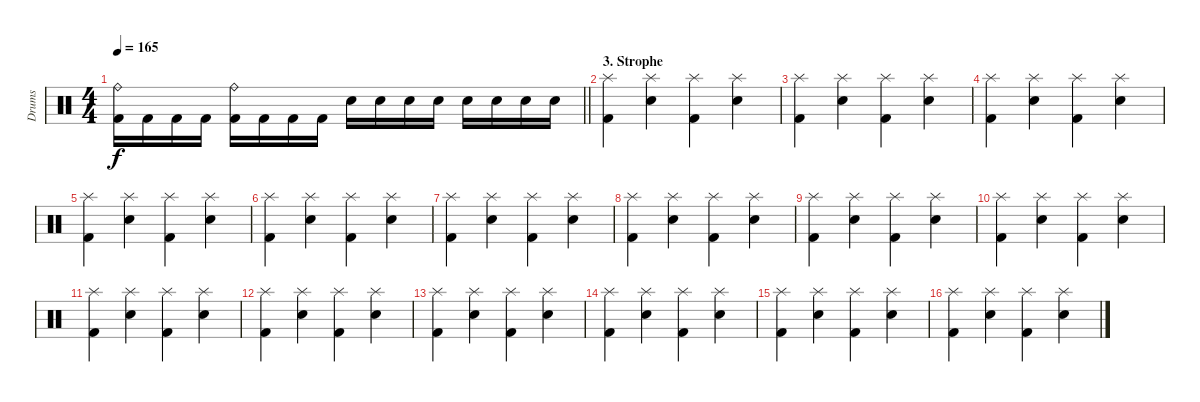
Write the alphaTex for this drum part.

\track ("Drums" "Drums") {instrument percussion}
\staff {score}
\articulation defaults
\ts (4 4)
\tempo 165
\clef neutral
\barLineRight lightlight
\ks c
("Kick (hit) 2" "Ride (bell)").16{dy f} "Kick (hit) 2".16 "Kick (hit) 2".16 "Kick (hit) 2".16 ("Kick (hit) 2" "Ride (bell)").16 "Kick (hit) 2".16 "Kick (hit) 2".16 "Kick (hit) 2".16 "Snare (hit) 2".16 "Snare (hit) 2".16 "Snare (hit) 2".16 "Snare (hit) 2".16 "Snare (hit) 2".16 "Snare (hit) 2".16 "Snare (hit) 2".16 "Snare (hit) 2".16 |
\section ("" "3. Strophe")
("Kick (hit) 2" "Splash (hit)").4 ("Snare (hit) 2" "Splash (hit)").4 ("Kick (hit) 2" "Splash (hit)").4 ("Snare (hit) 2" "Splash (hit)").4 |
("Kick (hit) 2" "Splash (hit)").4 ("Snare (hit) 2" "Splash (hit)").4 ("Kick (hit) 2" "Splash (hit)").4 ("Snare (hit) 2" "Splash (hit)").4 |
("Kick (hit) 2" "Splash (hit)").4 ("Snare (hit) 2" "Splash (hit)").4 ("Kick (hit) 2" "Splash (hit)").4 ("Snare (hit) 2" "Splash (hit)").4 |
("Kick (hit) 2" "Splash (hit)").4 ("Snare (hit) 2" "Splash (hit)").4 ("Kick (hit) 2" "Splash (hit)").4 ("Snare (hit) 2" "Splash (hit)").4 |
("Kick (hit) 2" "Splash (hit)").4 ("Snare (hit) 2" "Splash (hit)").4 ("Kick (hit) 2" "Splash (hit)").4 ("Snare (hit) 2" "Splash (hit)").4 |
("Kick (hit) 2" "Splash (hit)").4 ("Snare (hit) 2" "Splash (hit)").4 ("Kick (hit) 2" "Splash (hit)").4 ("Snare (hit) 2" "Splash (hit)").4 |
("Kick (hit) 2" "Splash (hit)").4 ("Snare (hit) 2" "Splash (hit)").4 ("Kick (hit) 2" "Splash (hit)").4 ("Snare (hit) 2" "Splash (hit)").4 |
("Kick (hit) 2" "Splash (hit)").4 ("Snare (hit) 2" "Splash (hit)").4 ("Kick (hit) 2" "Splash (hit)").4 ("Snare (hit) 2" "Splash (hit)").4 |
("Kick (hit) 2" "Splash (hit)").4 ("Snare (hit) 2" "Splash (hit)").4 ("Kick (hit) 2" "Splash (hit)").4 ("Snare (hit) 2" "Splash (hit)").4 |
("Kick (hit) 2" "Splash (hit)").4 ("Snare (hit) 2" "Splash (hit)").4 ("Kick (hit) 2" "Splash (hit)").4 ("Snare (hit) 2" "Splash (hit)").4 |
("Kick (hit) 2" "Splash (hit)").4 ("Snare (hit) 2" "Splash (hit)").4 ("Kick (hit) 2" "Splash (hit)").4 ("Snare (hit) 2" "Splash (hit)").4 |
("Kick (hit) 2" "Splash (hit)").4 ("Snare (hit) 2" "Splash (hit)").4 ("Kick (hit) 2" "Splash (hit)").4 ("Snare (hit) 2" "Splash (hit)").4 |
("Kick (hit) 2" "Splash (hit)").4 ("Snare (hit) 2" "Splash (hit)").4 ("Kick (hit) 2" "Splash (hit)").4 ("Snare (hit) 2" "Splash (hit)").4 |
("Kick (hit) 2" "Splash (hit)").4 ("Snare (hit) 2" "Splash (hit)").4 ("Kick (hit) 2" "Splash (hit)").4 ("Snare (hit) 2" "Splash (hit)").4 |
("Kick (hit) 2" "Splash (hit)").4 ("Snare (hit) 2" "Splash (hit)").4 ("Kick (hit) 2" "Splash (hit)").4 ("Snare (hit) 2" "Splash (hit)").4
